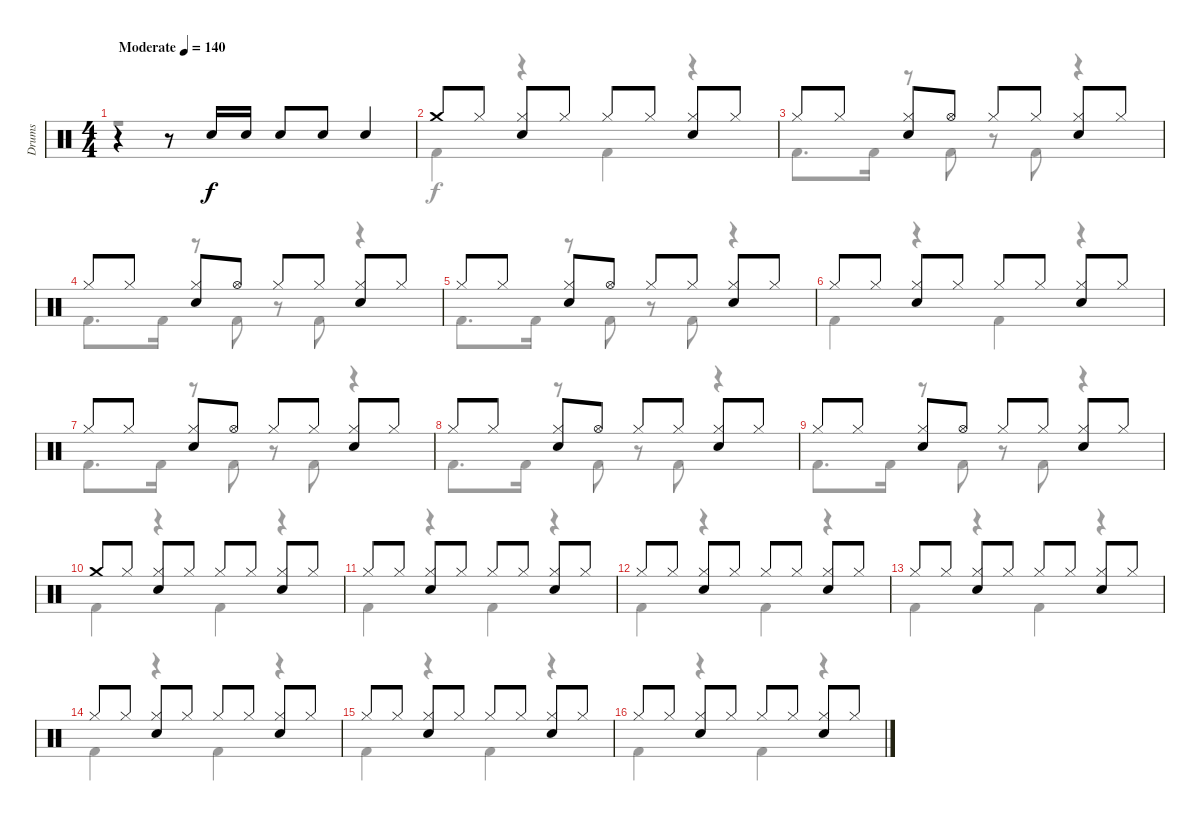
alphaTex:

\track ("Drums" "Drums") {instrument percussion}
\staff {score}
\articulation defaults
\voice
\ts (4 4)
\tempo (140 "Moderate")
\clef neutral
\ks c
r.4{dy f} r.8 "Snare (hit) 2".16 "Snare (hit) 2".16 "Snare (hit) 2".8 "Snare (hit) 2".8 "Snare (hit) 2".4 |
"Crash medium (hit)".8 "Hi-Hat (closed)".8 ("Hi-Hat (closed)" "Snare (hit) 2").8 "Hi-Hat (closed)".8 "Hi-Hat (closed)".8 "Hi-Hat (closed)".8 ("Hi-Hat (closed)" "Snare (hit) 2").8 "Hi-Hat (closed)".8 |
"Hi-Hat (closed)".8 "Hi-Hat (closed)".8 ("Hi-Hat (closed)" "Snare (hit) 2").8 "Hi-Hat (open)".8 "Hi-Hat (closed)".8 "Hi-Hat (closed)".8 ("Hi-Hat (closed)" "Snare (hit) 2").8 "Hi-Hat (closed)".8 |
"Hi-Hat (closed)".8 "Hi-Hat (closed)".8 ("Hi-Hat (closed)" "Snare (hit) 2").8 "Hi-Hat (open)".8 "Hi-Hat (closed)".8 "Hi-Hat (closed)".8 ("Hi-Hat (closed)" "Snare (hit) 2").8 "Hi-Hat (closed)".8 |
"Hi-Hat (closed)".8 "Hi-Hat (closed)".8 ("Hi-Hat (closed)" "Snare (hit) 2").8 "Hi-Hat (open)".8 "Hi-Hat (closed)".8 "Hi-Hat (closed)".8 ("Hi-Hat (closed)" "Snare (hit) 2").8 "Hi-Hat (closed)".8 |
"Hi-Hat (closed)".8 "Hi-Hat (closed)".8 ("Hi-Hat (closed)" "Snare (hit) 2").8 "Hi-Hat (closed)".8 "Hi-Hat (closed)".8 "Hi-Hat (closed)".8 ("Hi-Hat (closed)" "Snare (hit) 2").8 "Hi-Hat (closed)".8 |
"Hi-Hat (closed)".8 "Hi-Hat (closed)".8 ("Hi-Hat (closed)" "Snare (hit) 2").8 "Hi-Hat (open)".8 "Hi-Hat (closed)".8 "Hi-Hat (closed)".8 ("Hi-Hat (closed)" "Snare (hit) 2").8 "Hi-Hat (closed)".8 |
"Hi-Hat (closed)".8 "Hi-Hat (closed)".8 ("Hi-Hat (closed)" "Snare (hit) 2").8 "Hi-Hat (open)".8 "Hi-Hat (closed)".8 "Hi-Hat (closed)".8 ("Hi-Hat (closed)" "Snare (hit) 2").8 "Hi-Hat (closed)".8 |
"Hi-Hat (closed)".8 "Hi-Hat (closed)".8 ("Hi-Hat (closed)" "Snare (hit) 2").8 "Hi-Hat (open)".8 "Hi-Hat (closed)".8 "Hi-Hat (closed)".8 ("Hi-Hat (closed)" "Snare (hit) 2").8 "Hi-Hat (closed)".8 |
"Crash medium (hit)".8 "Hi-Hat (closed)".8 ("Hi-Hat (closed)" "Snare (hit) 2").8 "Hi-Hat (closed)".8 "Hi-Hat (closed)".8 "Hi-Hat (closed)".8 ("Hi-Hat (closed)" "Snare (hit) 2").8 "Hi-Hat (closed)".8 |
"Hi-Hat (closed)".8 "Hi-Hat (closed)".8 ("Hi-Hat (closed)" "Snare (hit) 2").8 "Hi-Hat (closed)".8 "Hi-Hat (closed)".8 "Hi-Hat (closed)".8 ("Hi-Hat (closed)" "Snare (hit) 2").8 "Hi-Hat (closed)".8 |
"Hi-Hat (closed)".8 "Hi-Hat (closed)".8 ("Hi-Hat (closed)" "Snare (hit) 2").8 "Hi-Hat (closed)".8 "Hi-Hat (closed)".8 "Hi-Hat (closed)".8 ("Hi-Hat (closed)" "Snare (hit) 2").8 "Hi-Hat (closed)".8 |
"Hi-Hat (closed)".8 "Hi-Hat (closed)".8 ("Hi-Hat (closed)" "Snare (hit) 2").8 "Hi-Hat (closed)".8 "Hi-Hat (closed)".8 "Hi-Hat (closed)".8 ("Hi-Hat (closed)" "Snare (hit) 2").8 "Hi-Hat (closed)".8 |
"Hi-Hat (closed)".8 "Hi-Hat (closed)".8 ("Hi-Hat (closed)" "Snare (hit) 2").8 "Hi-Hat (closed)".8 "Hi-Hat (closed)".8 "Hi-Hat (closed)".8 ("Hi-Hat (closed)" "Snare (hit) 2").8 "Hi-Hat (closed)".8 |
"Hi-Hat (closed)".8 "Hi-Hat (closed)".8 ("Hi-Hat (closed)" "Snare (hit) 2").8 "Hi-Hat (closed)".8 "Hi-Hat (closed)".8 "Hi-Hat (closed)".8 ("Hi-Hat (closed)" "Snare (hit) 2").8 "Hi-Hat (closed)".8 |
"Hi-Hat (closed)".8 "Hi-Hat (closed)".8 ("Hi-Hat (closed)" "Snare (hit) 2").8 "Hi-Hat (closed)".8 "Hi-Hat (closed)".8 "Hi-Hat (closed)".8 ("Hi-Hat (closed)" "Snare (hit) 2").8 "Hi-Hat (closed)".8
\voice
\clef neutral
\ottava regular
\simile none
\ks c
r.1{dy f} |
"Kick (hit) 2".4 r.4 "Kick (hit) 2".4 r.4 |
"Kick (hit) 2".8{d} "Kick (hit) 2".16 r.8 "Kick (hit) 2".8 r.8 "Kick (hit) 2".8 r.4 |
"Kick (hit) 2".8{d} "Kick (hit) 2".16 r.8 "Kick (hit) 2".8 r.8 "Kick (hit) 2".8 r.4 |
"Kick (hit) 2".8{d} "Kick (hit) 2".16 r.8 "Kick (hit) 2".8 r.8 "Kick (hit) 2".8 r.4 |
"Kick (hit) 2".4 r.4 "Kick (hit) 2".4 r.4 |
"Kick (hit) 2".8{d} "Kick (hit) 2".16 r.8 "Kick (hit) 2".8 r.8 "Kick (hit) 2".8 r.4 |
"Kick (hit) 2".8{d} "Kick (hit) 2".16 r.8 "Kick (hit) 2".8 r.8 "Kick (hit) 2".8 r.4 |
"Kick (hit) 2".8{d} "Kick (hit) 2".16 r.8 "Kick (hit) 2".8 r.8 "Kick (hit) 2".8 r.4 |
"Kick (hit) 2".4 r.4 "Kick (hit) 2".4 r.4 |
"Kick (hit) 2".4 r.4 "Kick (hit) 2".4 r.4 |
"Kick (hit) 2".4 r.4 "Kick (hit) 2".4 r.4 |
"Kick (hit) 2".4 r.4 "Kick (hit) 2".4 r.4 |
"Kick (hit) 2".4 r.4 "Kick (hit) 2".4 r.4 |
"Kick (hit) 2".4 r.4 "Kick (hit) 2".4 r.4 |
"Kick (hit) 2".4 r.4 "Kick (hit) 2".4 r.4
